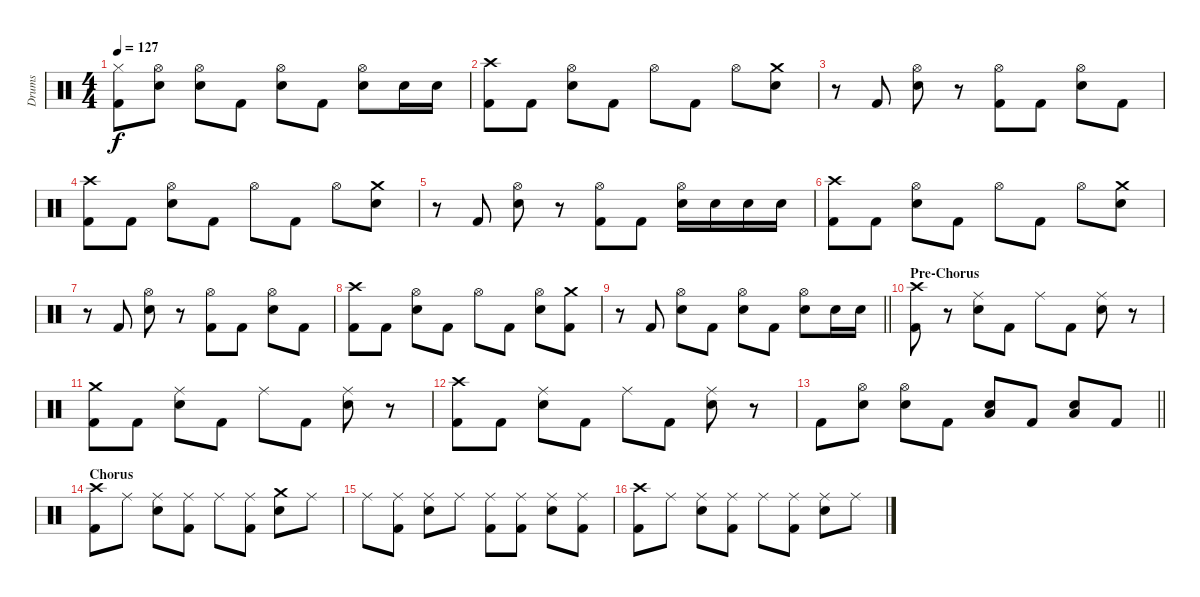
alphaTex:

\track ("Drums" "Drums") {instrument percussion}
\staff {score}
\articulation defaults
\ts (4 4)
\tempo 127
\clef neutral
\ks c
("Hi-Hat (closed)" "Kick (hit) 2").8{dy f} ("Hi-Hat (open)" "Electric Snare (hit)").8 ("Hi-Hat (open)" "Electric Snare (hit)").8 "Kick (hit) 2".8 ("Hi-Hat (open)" "Electric Snare (hit)").8 "Kick (hit) 2".8 ("Hi-Hat (open)" "Electric Snare (hit)").8 "Electric Snare (hit)".16 "Electric Snare (hit)".16 |
("Crash high (hit)" "Kick (hit) 2").8 "Kick (hit) 2".8 ("Hi-Hat (open)" "Electric Snare (hit)").8 "Kick (hit) 2".8 "Hi-Hat (open)".8 "Kick (hit) 2".8 "Hi-Hat (open)".8 ("Crash medium (hit)" "Electric Snare (hit)").8 |
r.8 "Kick (hit) 2".8 ("Hi-Hat (open)" "Electric Snare (hit)").8 r.8 ("Hi-Hat (open)" "Kick (hit) 2").8 "Kick (hit) 2".8 ("Hi-Hat (open)" "Electric Snare (hit)").8 "Kick (hit) 2".8 |
("Crash high (hit)" "Kick (hit) 2").8 "Kick (hit) 2".8 ("Hi-Hat (open)" "Electric Snare (hit)").8 "Kick (hit) 2".8 "Hi-Hat (open)".8 "Kick (hit) 2".8 "Hi-Hat (open)".8 ("Crash medium (hit)" "Electric Snare (hit)").8 |
r.8 "Kick (hit) 2".8 ("Hi-Hat (open)" "Electric Snare (hit)").8 r.8 ("Hi-Hat (open)" "Kick (hit) 2").8 "Kick (hit) 2".8 ("Hi-Hat (open)" "Electric Snare (hit)").16 "Electric Snare (hit)".16 "Electric Snare (hit)".16 "Electric Snare (hit)".16 |
("Crash high (hit)" "Kick (hit) 2").8 "Kick (hit) 2".8 ("Hi-Hat (open)" "Electric Snare (hit)").8 "Kick (hit) 2".8 "Hi-Hat (open)".8 "Kick (hit) 2".8 "Hi-Hat (open)".8 ("Crash medium (hit)" "Electric Snare (hit)").8 |
r.8 "Kick (hit) 2".8 ("Hi-Hat (open)" "Electric Snare (hit)").8 r.8 ("Hi-Hat (open)" "Kick (hit) 2").8 "Kick (hit) 2".8 ("Hi-Hat (open)" "Electric Snare (hit)").8 "Kick (hit) 2".8 |
("Crash high (hit)" "Kick (hit) 2").8 "Kick (hit) 2".8 ("Hi-Hat (open)" "Electric Snare (hit)").8 "Kick (hit) 2".8 "Hi-Hat (open)".8 "Kick (hit) 2".8 ("Hi-Hat (open)" "Electric Snare (hit)").8 ("Crash medium (hit)" "Kick (hit) 2").8 |
\barLineRight lightlight
r.8 "Kick (hit) 2".8 ("Hi-Hat (open)" "Electric Snare (hit)").8 "Kick (hit) 2".8 ("Hi-Hat (open)" "Electric Snare (hit)").8 "Kick (hit) 2".8 ("Hi-Hat (open)" "Electric Snare (hit)").8 "Electric Snare (hit)".16 "Electric Snare (hit)".16 |
\section ("" "Pre-Chorus")
("Crash high (hit)" "Kick (hit) 2").8 r.8 ("Ride (middle)" "Electric Snare (hit)").8 "Kick (hit) 2".8 "Ride (middle)".8 "Kick (hit) 2".8 ("Ride (middle)" "Electric Snare (hit)").8 r.8 |
("Crash medium (hit)" "Kick (hit) 2").8 "Kick (hit) 2".8 ("Ride (middle)" "Electric Snare (hit)").8 "Kick (hit) 2".8 "Ride (middle)".8 "Kick (hit) 2".8 ("Ride (middle)" "Electric Snare (hit)").8 r.8 |
("Crash high (hit)" "Kick (hit) 2").8 "Kick (hit) 2".8 ("Ride (middle)" "Electric Snare (hit)").8 "Kick (hit) 2".8 "Ride (middle)".8 "Kick (hit) 2".8 ("Ride (middle)" "Electric Snare (hit)").8 r.8 |
\barLineRight lightlight "Kick (hit) 2".8
("Hi-Hat (open)" "Electric Snare (hit)").8 ("Hi-Hat (open)" "Electric Snare (hit)").8 "Kick (hit) 2".8 ("Low Floor Tom (hit)" "Electric Snare (hit)").8 "Kick (hit) 2".8 ("Low Floor Tom (hit)" "Electric Snare (hit)").8 "Kick (hit) 2".8 |
\section ("" "Chorus")
("Crash high (hit)" "Kick (hit) 2").8 "Ride (middle)".8 ("Ride (middle)" "Electric Snare (hit)").8 ("Ride (middle)" "Kick (hit) 2").8 "Ride (middle)".8 ("Ride (middle)" "Kick (hit) 2").8 ("Crash medium (hit)" "Electric Snare (hit)").8 "Ride (middle)".8 |
"Ride (middle)".8 ("Ride (middle)" "Kick (hit) 2").8 ("Ride (middle)" "Electric Snare (hit)").8 "Ride (middle)".8 ("Ride (middle)" "Kick (hit) 2").8 ("Ride (middle)" "Kick (hit) 2").8 ("Ride (middle)" "Electric Snare (hit)").8 ("Ride (middle)" "Kick (hit) 2").8 |
("Crash high (hit)" "Kick (hit) 2").8 "Ride (middle)".8 ("Ride (middle)" "Electric Snare (hit)").8 ("Ride (middle)" "Kick (hit) 2").8 "Ride (middle)".8 ("Ride (middle)" "Kick (hit) 2").8 ("Ride (middle)" "Electric Snare (hit)").8 "Ride (middle)".8
